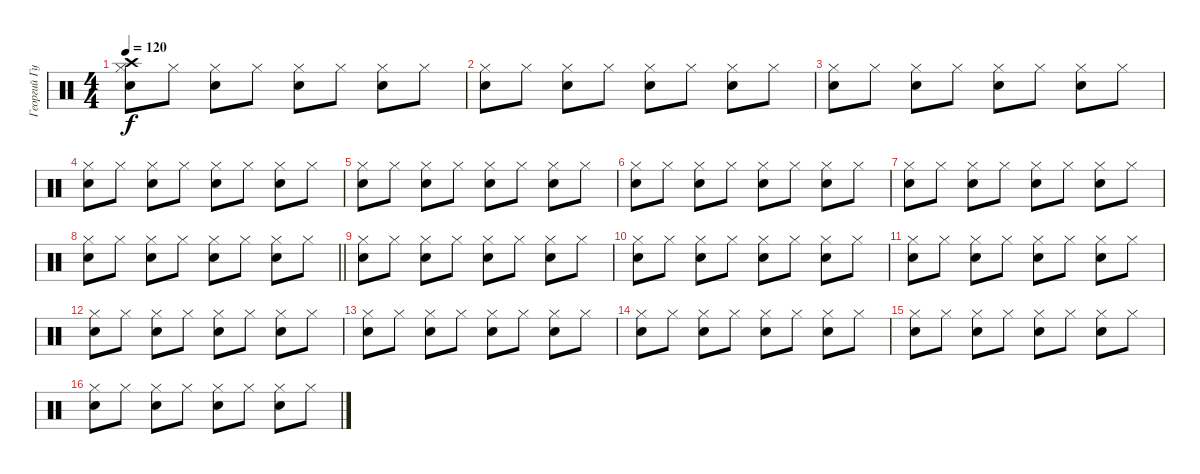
\track ("Георгий Гурьянов" "Георгий Гу") {instrument percussion}
\staff {score}
\articulation defaults
\ts (4 4)
\tempo 120
\clef neutral
\ks c
("Hi-Hat (closed)" "Crash high (hit)" "Snare (hit) 2").8{dy f} "Hi-Hat (closed)".8 ("Hi-Hat (closed)" "Snare (hit) 2").8 "Hi-Hat (closed)".8 ("Hi-Hat (closed)" "Snare (hit) 2").8 "Hi-Hat (closed)".8 ("Hi-Hat (closed)" "Snare (hit) 2").8 "Hi-Hat (closed)".8 |
("Hi-Hat (closed)" "Snare (hit) 2").8 "Hi-Hat (closed)".8 ("Hi-Hat (closed)" "Snare (hit) 2").8 "Hi-Hat (closed)".8 ("Hi-Hat (closed)" "Snare (hit) 2").8 "Hi-Hat (closed)".8 ("Hi-Hat (closed)" "Snare (hit) 2").8 "Hi-Hat (closed)".8 |
("Hi-Hat (closed)" "Snare (hit) 2").8 "Hi-Hat (closed)".8 ("Hi-Hat (closed)" "Snare (hit) 2").8 "Hi-Hat (closed)".8 ("Hi-Hat (closed)" "Snare (hit) 2").8 "Hi-Hat (closed)".8 ("Hi-Hat (closed)" "Snare (hit) 2").8 "Hi-Hat (closed)".8 |
("Hi-Hat (closed)" "Snare (hit) 2").8 "Hi-Hat (closed)".8 ("Hi-Hat (closed)" "Snare (hit) 2").8 "Hi-Hat (closed)".8 ("Hi-Hat (closed)" "Snare (hit) 2").8 "Hi-Hat (closed)".8 ("Hi-Hat (closed)" "Snare (hit) 2").8 "Hi-Hat (closed)".8 |
("Hi-Hat (closed)" "Snare (hit) 2").8 "Hi-Hat (closed)".8 ("Hi-Hat (closed)" "Snare (hit) 2").8 "Hi-Hat (closed)".8 ("Hi-Hat (closed)" "Snare (hit) 2").8 "Hi-Hat (closed)".8 ("Hi-Hat (closed)" "Snare (hit) 2").8 "Hi-Hat (closed)".8 |
("Hi-Hat (closed)" "Snare (hit) 2").8 "Hi-Hat (closed)".8 ("Hi-Hat (closed)" "Snare (hit) 2").8 "Hi-Hat (closed)".8 ("Hi-Hat (closed)" "Snare (hit) 2").8 "Hi-Hat (closed)".8 ("Hi-Hat (closed)" "Snare (hit) 2").8 "Hi-Hat (closed)".8 |
("Hi-Hat (closed)" "Snare (hit) 2").8 "Hi-Hat (closed)".8 ("Hi-Hat (closed)" "Snare (hit) 2").8 "Hi-Hat (closed)".8 ("Hi-Hat (closed)" "Snare (hit) 2").8 "Hi-Hat (closed)".8 ("Hi-Hat (closed)" "Snare (hit) 2").8 "Hi-Hat (closed)".8 |
\barLineRight lightlight
("Hi-Hat (closed)" "Snare (hit) 2").8 "Hi-Hat (closed)".8 ("Hi-Hat (closed)" "Snare (hit) 2").8 "Hi-Hat (closed)".8 ("Hi-Hat (closed)" "Snare (hit) 2").8 "Hi-Hat (closed)".8 ("Hi-Hat (closed)" "Snare (hit) 2").8 "Hi-Hat (closed)".8 |
("Hi-Hat (closed)" "Snare (hit) 2").8 "Hi-Hat (closed)".8 ("Hi-Hat (closed)" "Snare (hit) 2").8 "Hi-Hat (closed)".8 ("Hi-Hat (closed)" "Snare (hit) 2").8 "Hi-Hat (closed)".8 ("Hi-Hat (closed)" "Snare (hit) 2").8 "Hi-Hat (closed)".8 |
("Hi-Hat (closed)" "Snare (hit) 2").8 "Hi-Hat (closed)".8 ("Hi-Hat (closed)" "Snare (hit) 2").8 "Hi-Hat (closed)".8 ("Hi-Hat (closed)" "Snare (hit) 2").8 "Hi-Hat (closed)".8 ("Hi-Hat (closed)" "Snare (hit) 2").8 "Hi-Hat (closed)".8 |
("Hi-Hat (closed)" "Snare (hit) 2").8 "Hi-Hat (closed)".8 ("Hi-Hat (closed)" "Snare (hit) 2").8 "Hi-Hat (closed)".8 ("Hi-Hat (closed)" "Snare (hit) 2").8 "Hi-Hat (closed)".8 ("Hi-Hat (closed)" "Snare (hit) 2").8 "Hi-Hat (closed)".8 |
("Hi-Hat (closed)" "Snare (hit) 2").8 "Hi-Hat (closed)".8 ("Hi-Hat (closed)" "Snare (hit) 2").8 "Hi-Hat (closed)".8 ("Hi-Hat (closed)" "Snare (hit) 2").8 "Hi-Hat (closed)".8 ("Hi-Hat (closed)" "Snare (hit) 2").8 "Hi-Hat (closed)".8 |
("Hi-Hat (closed)" "Snare (hit) 2").8 "Hi-Hat (closed)".8 ("Hi-Hat (closed)" "Snare (hit) 2").8 "Hi-Hat (closed)".8 ("Hi-Hat (closed)" "Snare (hit) 2").8 "Hi-Hat (closed)".8 ("Hi-Hat (closed)" "Snare (hit) 2").8 "Hi-Hat (closed)".8 |
("Hi-Hat (closed)" "Snare (hit) 2").8 "Hi-Hat (closed)".8 ("Hi-Hat (closed)" "Snare (hit) 2").8 "Hi-Hat (closed)".8 ("Hi-Hat (closed)" "Snare (hit) 2").8 "Hi-Hat (closed)".8 ("Hi-Hat (closed)" "Snare (hit) 2").8 "Hi-Hat (closed)".8 |
("Hi-Hat (closed)" "Snare (hit) 2").8 "Hi-Hat (closed)".8 ("Hi-Hat (closed)" "Snare (hit) 2").8 "Hi-Hat (closed)".8 ("Hi-Hat (closed)" "Snare (hit) 2").8 "Hi-Hat (closed)".8 ("Hi-Hat (closed)" "Snare (hit) 2").8 "Hi-Hat (closed)".8 |
("Hi-Hat (closed)" "Snare (hit) 2").8 "Hi-Hat (closed)".8 ("Hi-Hat (closed)" "Snare (hit) 2").8 "Hi-Hat (closed)".8 ("Hi-Hat (closed)" "Snare (hit) 2").8 "Hi-Hat (closed)".8 ("Hi-Hat (closed)" "Snare (hit) 2").8 "Hi-Hat (closed)".8
